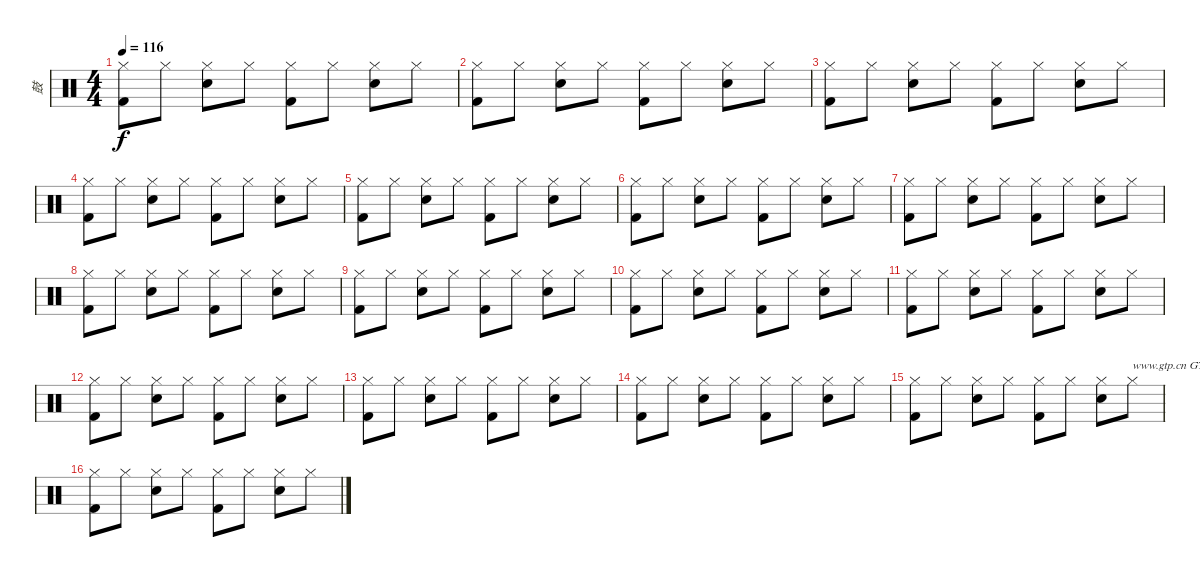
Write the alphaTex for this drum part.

\track ("鼓" "鼓") {instrument percussion}
\staff {score}
\articulation defaults
\ts (4 4)
\tempo 116
\clef neutral
\ks c
("Kick (hit) 2" "Hi-Hat (closed)").8{dy f} "Hi-Hat (closed)".8 ("Snare (hit) 2" "Hi-Hat (closed)").8 "Hi-Hat (closed)".8 ("Kick (hit) 2" "Hi-Hat (closed)").8 "Hi-Hat (closed)".8 ("Snare (hit) 2" "Hi-Hat (closed)").8 "Hi-Hat (closed)".8 |
("Kick (hit) 2" "Hi-Hat (closed)").8 "Hi-Hat (closed)".8 ("Snare (hit) 2" "Hi-Hat (closed)").8 "Hi-Hat (closed)".8 ("Kick (hit) 2" "Hi-Hat (closed)").8 "Hi-Hat (closed)".8 ("Snare (hit) 2" "Hi-Hat (closed)").8 "Hi-Hat (closed)".8 |
("Kick (hit) 2" "Hi-Hat (closed)").8 "Hi-Hat (closed)".8 ("Snare (hit) 2" "Hi-Hat (closed)").8 "Hi-Hat (closed)".8 ("Kick (hit) 2" "Hi-Hat (closed)").8 "Hi-Hat (closed)".8 ("Snare (hit) 2" "Hi-Hat (closed)").8 "Hi-Hat (closed)".8 |
("Kick (hit) 2" "Hi-Hat (closed)").8 "Hi-Hat (closed)".8 ("Snare (hit) 2" "Hi-Hat (closed)").8 "Hi-Hat (closed)".8 ("Kick (hit) 2" "Hi-Hat (closed)").8 "Hi-Hat (closed)".8 ("Snare (hit) 2" "Hi-Hat (closed)").8 "Hi-Hat (closed)".8 |
("Kick (hit) 2" "Hi-Hat (closed)").8 "Hi-Hat (closed)".8 ("Snare (hit) 2" "Hi-Hat (closed)").8 "Hi-Hat (closed)".8 ("Kick (hit) 2" "Hi-Hat (closed)").8 "Hi-Hat (closed)".8 ("Snare (hit) 2" "Hi-Hat (closed)").8 "Hi-Hat (closed)".8 |
("Kick (hit) 2" "Hi-Hat (closed)").8 "Hi-Hat (closed)".8 ("Snare (hit) 2" "Hi-Hat (closed)").8 "Hi-Hat (closed)".8 ("Kick (hit) 2" "Hi-Hat (closed)").8 "Hi-Hat (closed)".8 ("Snare (hit) 2" "Hi-Hat (closed)").8 "Hi-Hat (closed)".8 |
("Kick (hit) 2" "Hi-Hat (closed)").8 "Hi-Hat (closed)".8 ("Snare (hit) 2" "Hi-Hat (closed)").8 "Hi-Hat (closed)".8 ("Kick (hit) 2" "Hi-Hat (closed)").8 "Hi-Hat (closed)".8 ("Snare (hit) 2" "Hi-Hat (closed)").8 "Hi-Hat (closed)".8 |
("Kick (hit) 2" "Hi-Hat (closed)").8 "Hi-Hat (closed)".8 ("Snare (hit) 2" "Hi-Hat (closed)").8 "Hi-Hat (closed)".8 ("Kick (hit) 2" "Hi-Hat (closed)").8 "Hi-Hat (closed)".8 ("Snare (hit) 2" "Hi-Hat (closed)").8 "Hi-Hat (closed)".8 |
("Kick (hit) 2" "Hi-Hat (closed)").8 "Hi-Hat (closed)".8 ("Snare (hit) 2" "Hi-Hat (closed)").8 "Hi-Hat (closed)".8 ("Kick (hit) 2" "Hi-Hat (closed)").8 "Hi-Hat (closed)".8 ("Snare (hit) 2" "Hi-Hat (closed)").8 "Hi-Hat (closed)".8 |
("Kick (hit) 2" "Hi-Hat (closed)").8 "Hi-Hat (closed)".8 ("Snare (hit) 2" "Hi-Hat (closed)").8 "Hi-Hat (closed)".8 ("Kick (hit) 2" "Hi-Hat (closed)").8 "Hi-Hat (closed)".8 ("Snare (hit) 2" "Hi-Hat (closed)").8 "Hi-Hat (closed)".8 |
("Kick (hit) 2" "Hi-Hat (closed)").8 "Hi-Hat (closed)".8 ("Snare (hit) 2" "Hi-Hat (closed)").8 "Hi-Hat (closed)".8 ("Kick (hit) 2" "Hi-Hat (closed)").8 "Hi-Hat (closed)".8 ("Snare (hit) 2" "Hi-Hat (closed)").8 "Hi-Hat (closed)".8 |
("Kick (hit) 2" "Hi-Hat (closed)").8 "Hi-Hat (closed)".8 ("Snare (hit) 2" "Hi-Hat (closed)").8 "Hi-Hat (closed)".8 ("Kick (hit) 2" "Hi-Hat (closed)").8 "Hi-Hat (closed)".8 ("Snare (hit) 2" "Hi-Hat (closed)").8 "Hi-Hat (closed)".8 |
("Kick (hit) 2" "Hi-Hat (closed)").8 "Hi-Hat (closed)".8 ("Snare (hit) 2" "Hi-Hat (closed)").8 "Hi-Hat (closed)".8 ("Kick (hit) 2" "Hi-Hat (closed)").8 "Hi-Hat (closed)".8 ("Snare (hit) 2" "Hi-Hat (closed)").8 "Hi-Hat (closed)".8 |
("Kick (hit) 2" "Hi-Hat (closed)").8 "Hi-Hat (closed)".8 ("Snare (hit) 2" "Hi-Hat (closed)").8 "Hi-Hat (closed)".8 ("Kick (hit) 2" "Hi-Hat (closed)").8 "Hi-Hat (closed)".8 ("Snare (hit) 2" "Hi-Hat (closed)").8 "Hi-Hat (closed)".8 |
("Kick (hit) 2" "Hi-Hat (closed)").8 "Hi-Hat (closed)".8 ("Snare (hit) 2" "Hi-Hat (closed)").8 "Hi-Hat (closed)".8 ("Kick (hit) 2" "Hi-Hat (closed)").8 "Hi-Hat (closed)".8 ("Snare (hit) 2" "Hi-Hat (closed)").8 "Hi-Hat (closed)".8{txt "www.gtp.cn GTP中文网为您提供优秀的谱子"} |
("Kick (hit) 2" "Hi-Hat (closed)").8 "Hi-Hat (closed)".8 ("Snare (hit) 2" "Hi-Hat (closed)").8 "Hi-Hat (closed)".8 ("Kick (hit) 2" "Hi-Hat (closed)").8 "Hi-Hat (closed)".8 ("Snare (hit) 2" "Hi-Hat (closed)").8 "Hi-Hat (closed)".8
